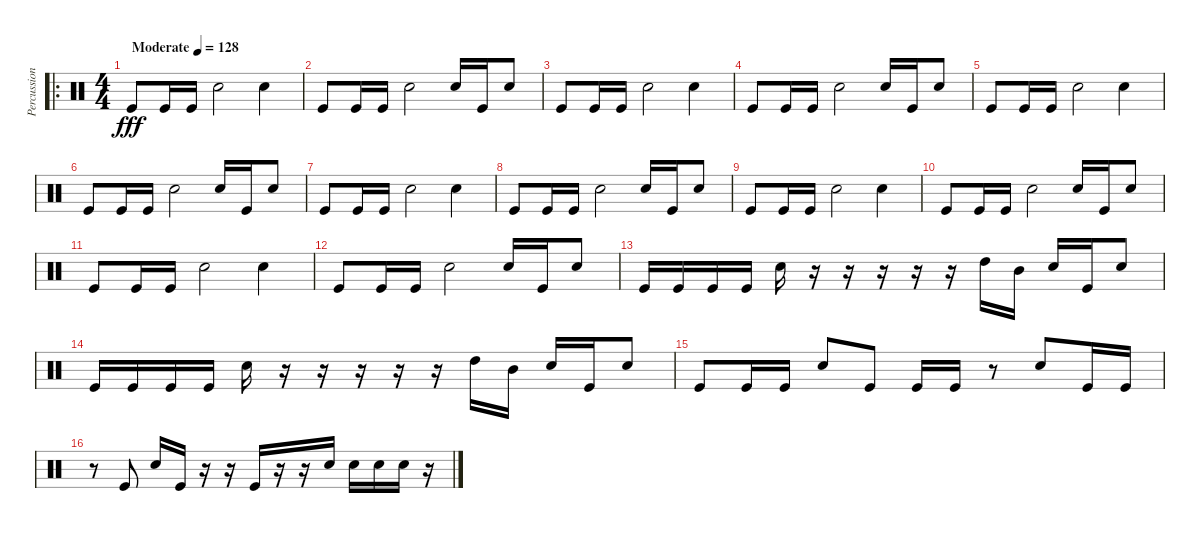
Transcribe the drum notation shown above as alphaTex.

\track ("Percussions" "Percussion") {instrument percussion}
\staff {score}
\articulation defaults
\ro
\ts (4 4)
\tempo (128 "Moderate")
\clef neutral
\ks c "Kick (hit)".8{dy fff} "Kick (hit)".16 "Kick (hit)".16 "Snare (hit) 2".2 "Snare (hit) 2".4
|
"Kick (hit)".8 "Kick (hit)".16 "Kick (hit)".16 "Snare (hit) 2".2 "Snare (hit) 2".16 "Kick (hit)".16 "Hand Clap (hit)".8 |
"Kick (hit)".8 "Kick (hit)".16 "Kick (hit)".16 "Snare (hit) 2".2 "Snare (hit) 2".4 |
"Kick (hit)".8 "Kick (hit)".16 "Kick (hit)".16 "Snare (hit) 2".2 "Snare (hit) 2".16 "Kick (hit)".16 "Hand Clap (hit)".8 |
"Kick (hit)".8 "Kick (hit)".16 "Kick (hit)".16 "Snare (hit) 2".2 "Snare (hit) 2".4 |
"Kick (hit)".8 "Kick (hit)".16 "Kick (hit)".16 "Snare (hit) 2".2 "Snare (hit) 2".16 "Kick (hit)".16 "Hand Clap (hit)".8 |
"Kick (hit)".8 "Kick (hit)".16 "Kick (hit)".16 "Snare (hit) 2".2 "Snare (hit) 2".4 |
"Kick (hit)".8 "Kick (hit)".16 "Kick (hit)".16 "Snare (hit) 2".2 "Snare (hit) 2".16 "Kick (hit)".16 "Hand Clap (hit)".8 |
"Kick (hit)".8 "Kick (hit)".16 "Kick (hit)".16 "Snare (hit) 2".2 "Snare (hit) 2".4 |
"Kick (hit)".8 "Kick (hit)".16 "Kick (hit)".16 "Snare (hit) 2".2 "Snare (hit) 2".16 "Kick (hit)".16 "Hand Clap (hit)".8 |
"Kick (hit)".8 "Kick (hit)".16 "Kick (hit)".16 "Snare (hit) 2".2 "Snare (hit) 2".4 |
"Kick (hit)".8 "Kick (hit)".16 "Kick (hit)".16 "Snare (hit) 2".2 "Snare (hit) 2".16 "Kick (hit)".16 "Hand Clap (hit)".8 |
"Kick (hit)".16 "Kick (hit)".16 "Kick (hit)".16 "Kick (hit)".16 "Snare (hit) 2".16 r.16 r.16 r.16 r.16 r.16 "High Tom (hit)".16 "Mid Tom (hit)".16 "Snare (hit) 2".16 "Kick (hit)".16 "Hand Clap (hit)".8 |
"Kick (hit)".16 "Kick (hit)".16 "Kick (hit)".16 "Kick (hit)".16 "Snare (hit) 2".16 r.16 r.16 r.16 r.16 r.16 "High Tom (hit)".16 "Mid Tom (hit)".16 "Snare (hit) 2".16 "Kick (hit)".16 "Hand Clap (hit)".8 |
"Kick (hit)".8 "Kick (hit)".16 "Kick (hit)".16 "Snare (hit) 2".8 "Kick (hit)".8 "Kick (hit)".16 "Kick (hit)".16 r.8 "Snare (hit) 2".8 "Kick (hit)".16 "Kick (hit)".16 |
r.8 "Kick (hit)".8 "Snare (hit) 2".16 "Kick (hit)".16 r.16 r.16 "Kick (hit)".16 r.16 r.16 "Snare (hit) 2".16 "Snare (hit) 2".16 "Snare (hit) 2".16 "Snare (hit) 2".16 r.16
